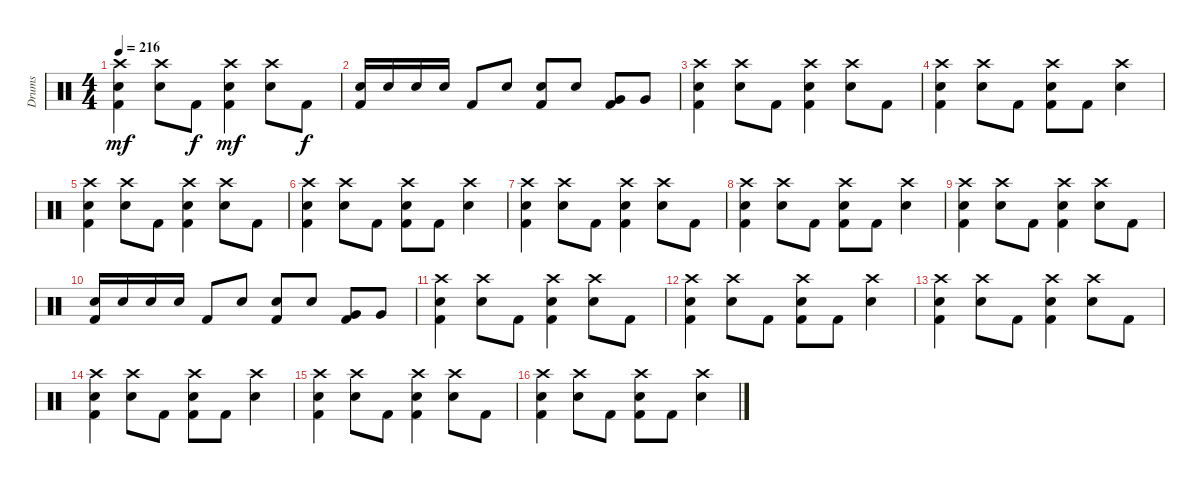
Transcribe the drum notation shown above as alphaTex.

\track ("Drums" "Drums") {instrument percussion}
\staff {score}
\articulation defaults
\ts (4 4)
\tempo 216
\clef neutral
\ks c
("Kick (hit) 2" "Snare (hit) 2" "Crash high (hit)").4{dy mf} ("Snare (hit) 2" "Crash high (hit)").8 "Kick (hit) 2".8{dy f} ("Kick (hit) 2" "Snare (hit) 2" "Crash high (hit)").4{dy mf} ("Snare (hit) 2" "Crash high (hit)").8 "Kick (hit) 2".8{dy f} |
("Kick (hit) 2" "Snare (hit) 2").16 "Snare (hit) 2".16 "Snare (hit) 2".16 "Snare (hit) 2".16 "Kick (hit) 2".8 "Snare (hit) 2".8 ("Kick (hit) 2" "Snare (hit) 2").8 "Snare (hit) 2".8 ("Kick (hit) 2" "Very Low Tom (hit)").8 "Very Low Tom (hit)".8 |
("Kick (hit) 2" "Snare (hit) 2" "Crash high (hit)").4 ("Snare (hit) 2" "Crash high (hit)").8 "Kick (hit) 2".8 ("Kick (hit) 2" "Snare (hit) 2" "Crash high (hit)").4 ("Snare (hit) 2" "Crash high (hit)").8 "Kick (hit) 2".8 |
("Kick (hit) 2" "Snare (hit) 2" "Crash high (hit)").4 ("Snare (hit) 2" "Crash high (hit)").8 "Kick (hit) 2".8 ("Kick (hit) 2" "Snare (hit) 2" "Crash high (hit)").8 "Kick (hit) 2".8 ("Snare (hit) 2" "Crash high (hit)").4 |
("Kick (hit) 2" "Snare (hit) 2" "Crash high (hit)").4 ("Snare (hit) 2" "Crash high (hit)").8 "Kick (hit) 2".8 ("Kick (hit) 2" "Snare (hit) 2" "Crash high (hit)").4 ("Snare (hit) 2" "Crash high (hit)").8 "Kick (hit) 2".8 |
("Kick (hit) 2" "Snare (hit) 2" "Crash high (hit)").4 ("Snare (hit) 2" "Crash high (hit)").8 "Kick (hit) 2".8 ("Kick (hit) 2" "Snare (hit) 2" "Crash high (hit)").8 "Kick (hit) 2".8 ("Snare (hit) 2" "Crash high (hit)").4 |
("Kick (hit) 2" "Snare (hit) 2" "Crash high (hit)").4 ("Snare (hit) 2" "Crash high (hit)").8 "Kick (hit) 2".8 ("Kick (hit) 2" "Snare (hit) 2" "Crash high (hit)").4 ("Snare (hit) 2" "Crash high (hit)").8 "Kick (hit) 2".8 |
("Kick (hit) 2" "Snare (hit) 2" "Crash high (hit)").4 ("Snare (hit) 2" "Crash high (hit)").8 "Kick (hit) 2".8 ("Kick (hit) 2" "Snare (hit) 2" "Crash high (hit)").8 "Kick (hit) 2".8 ("Snare (hit) 2" "Crash high (hit)").4 |
("Kick (hit) 2" "Snare (hit) 2" "Crash high (hit)").4 ("Snare (hit) 2" "Crash high (hit)").8 "Kick (hit) 2".8 ("Kick (hit) 2" "Snare (hit) 2" "Crash high (hit)").4 ("Snare (hit) 2" "Crash high (hit)").8 "Kick (hit) 2".8 |
("Kick (hit) 2" "Snare (hit) 2").16 "Snare (hit) 2".16 "Snare (hit) 2".16 "Snare (hit) 2".16 "Kick (hit) 2".8 "Snare (hit) 2".8 ("Kick (hit) 2" "Snare (hit) 2").8 "Snare (hit) 2".8 ("Kick (hit) 2" "Very Low Tom (hit)").8 "Very Low Tom (hit)".8 |
("Kick (hit) 2" "Snare (hit) 2" "Crash high (hit)").4 ("Snare (hit) 2" "Crash high (hit)").8 "Kick (hit) 2".8 ("Kick (hit) 2" "Snare (hit) 2" "Crash high (hit)").4 ("Snare (hit) 2" "Crash high (hit)").8 "Kick (hit) 2".8 |
("Kick (hit) 2" "Snare (hit) 2" "Crash high (hit)").4 ("Snare (hit) 2" "Crash high (hit)").8 "Kick (hit) 2".8 ("Kick (hit) 2" "Snare (hit) 2" "Crash high (hit)").8 "Kick (hit) 2".8 ("Snare (hit) 2" "Crash high (hit)").4 |
("Kick (hit) 2" "Snare (hit) 2" "Crash high (hit)").4 ("Snare (hit) 2" "Crash high (hit)").8 "Kick (hit) 2".8 ("Kick (hit) 2" "Snare (hit) 2" "Crash high (hit)").4 ("Snare (hit) 2" "Crash high (hit)").8 "Kick (hit) 2".8 |
("Kick (hit) 2" "Snare (hit) 2" "Crash high (hit)").4 ("Snare (hit) 2" "Crash high (hit)").8 "Kick (hit) 2".8 ("Kick (hit) 2" "Snare (hit) 2" "Crash high (hit)").8 "Kick (hit) 2".8 ("Snare (hit) 2" "Crash high (hit)").4 |
("Kick (hit) 2" "Snare (hit) 2" "Crash high (hit)").4 ("Snare (hit) 2" "Crash high (hit)").8 "Kick (hit) 2".8 ("Kick (hit) 2" "Snare (hit) 2" "Crash high (hit)").4 ("Snare (hit) 2" "Crash high (hit)").8 "Kick (hit) 2".8 |
("Kick (hit) 2" "Snare (hit) 2" "Crash high (hit)").4 ("Snare (hit) 2" "Crash high (hit)").8 "Kick (hit) 2".8 ("Kick (hit) 2" "Snare (hit) 2" "Crash high (hit)").8 "Kick (hit) 2".8 ("Snare (hit) 2" "Crash high (hit)").4
